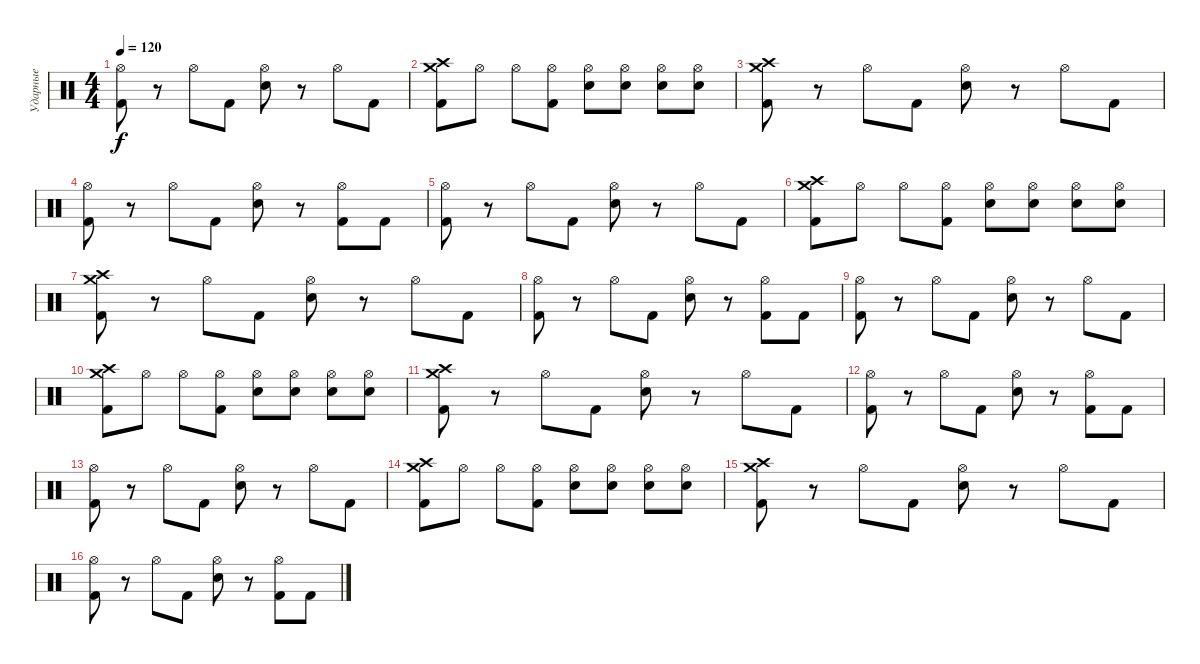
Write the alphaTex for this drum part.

\track ("Ударные" "Ударные") {instrument percussion}
\staff {score}
\articulation defaults
\ts (4 4)
\tempo 120
\clef neutral
\ks c
("Hi-Hat (open)" "Kick (hit) 2").8{dy f} r.8 "Hi-Hat (open)".8 "Kick (hit) 2".8 ("Hi-Hat (open)" "Electric Snare (hit)").8 r.8 "Hi-Hat (open)".8 "Kick (hit) 2".8 |
("Crash high (hit)" "Crash medium (hit)" "Kick (hit) 2").8 "Hi-Hat (open)".8 "Hi-Hat (open)".8 ("Hi-Hat (open)" "Kick (hit) 2").8 ("Hi-Hat (open)" "Electric Snare (hit)").8 ("Hi-Hat (open)" "Electric Snare (hit)").8 ("Hi-Hat (open)" "Electric Snare (hit)").8 ("Hi-Hat (open)" "Electric Snare (hit)").8 |
("Crash high (hit)" "Crash medium (hit)" "Kick (hit) 2").8 r.8 "Hi-Hat (open)".8 "Kick (hit) 2".8 ("Hi-Hat (open)" "Electric Snare (hit)").8 r.8 "Hi-Hat (open)".8 "Kick (hit) 2".8 |
("Hi-Hat (open)" "Kick (hit) 2").8 r.8 "Hi-Hat (open)".8 "Kick (hit) 2".8 ("Hi-Hat (open)" "Electric Snare (hit)").8 r.8 ("Hi-Hat (open)" "Kick (hit) 2").8 "Kick (hit) 2".8 |
("Hi-Hat (open)" "Kick (hit) 2").8 r.8 "Hi-Hat (open)".8 "Kick (hit) 2".8 ("Hi-Hat (open)" "Electric Snare (hit)").8 r.8 "Hi-Hat (open)".8 "Kick (hit) 2".8 |
("Crash high (hit)" "Crash medium (hit)" "Kick (hit) 2").8 "Hi-Hat (open)".8 "Hi-Hat (open)".8 ("Hi-Hat (open)" "Kick (hit) 2").8 ("Hi-Hat (open)" "Electric Snare (hit)").8 ("Hi-Hat (open)" "Electric Snare (hit)").8 ("Hi-Hat (open)" "Electric Snare (hit)").8 ("Hi-Hat (open)" "Electric Snare (hit)").8 |
("Crash high (hit)" "Crash medium (hit)" "Kick (hit) 2").8 r.8 "Hi-Hat (open)".8 "Kick (hit) 2".8 ("Hi-Hat (open)" "Electric Snare (hit)").8 r.8 "Hi-Hat (open)".8 "Kick (hit) 2".8 |
("Hi-Hat (open)" "Kick (hit) 2").8 r.8 "Hi-Hat (open)".8 "Kick (hit) 2".8 ("Hi-Hat (open)" "Electric Snare (hit)").8 r.8 ("Hi-Hat (open)" "Kick (hit) 2").8 "Kick (hit) 2".8 |
("Hi-Hat (open)" "Kick (hit) 2").8 r.8 "Hi-Hat (open)".8 "Kick (hit) 2".8 ("Hi-Hat (open)" "Electric Snare (hit)").8 r.8 "Hi-Hat (open)".8 "Kick (hit) 2".8 |
("Crash high (hit)" "Crash medium (hit)" "Kick (hit) 2").8 "Hi-Hat (open)".8 "Hi-Hat (open)".8 ("Hi-Hat (open)" "Kick (hit) 2").8 ("Hi-Hat (open)" "Electric Snare (hit)").8 ("Hi-Hat (open)" "Electric Snare (hit)").8 ("Hi-Hat (open)" "Electric Snare (hit)").8 ("Hi-Hat (open)" "Electric Snare (hit)").8 |
("Crash high (hit)" "Crash medium (hit)" "Kick (hit) 2").8 r.8 "Hi-Hat (open)".8 "Kick (hit) 2".8 ("Hi-Hat (open)" "Electric Snare (hit)").8 r.8 "Hi-Hat (open)".8 "Kick (hit) 2".8 |
("Hi-Hat (open)" "Kick (hit) 2").8 r.8 "Hi-Hat (open)".8 "Kick (hit) 2".8 ("Hi-Hat (open)" "Electric Snare (hit)").8 r.8 ("Hi-Hat (open)" "Kick (hit) 2").8 "Kick (hit) 2".8 |
("Hi-Hat (open)" "Kick (hit) 2").8 r.8 "Hi-Hat (open)".8 "Kick (hit) 2".8 ("Hi-Hat (open)" "Electric Snare (hit)").8 r.8 "Hi-Hat (open)".8 "Kick (hit) 2".8 |
("Crash high (hit)" "Crash medium (hit)" "Kick (hit) 2").8 "Hi-Hat (open)".8 "Hi-Hat (open)".8 ("Hi-Hat (open)" "Kick (hit) 2").8 ("Hi-Hat (open)" "Electric Snare (hit)").8 ("Hi-Hat (open)" "Electric Snare (hit)").8 ("Hi-Hat (open)" "Electric Snare (hit)").8 ("Hi-Hat (open)" "Electric Snare (hit)").8 |
("Crash high (hit)" "Crash medium (hit)" "Kick (hit) 2").8 r.8 "Hi-Hat (open)".8 "Kick (hit) 2".8 ("Hi-Hat (open)" "Electric Snare (hit)").8 r.8 "Hi-Hat (open)".8 "Kick (hit) 2".8 |
("Hi-Hat (open)" "Kick (hit) 2").8 r.8 "Hi-Hat (open)".8 "Kick (hit) 2".8 ("Hi-Hat (open)" "Electric Snare (hit)").8 r.8 ("Hi-Hat (open)" "Kick (hit) 2").8 "Kick (hit) 2".8
